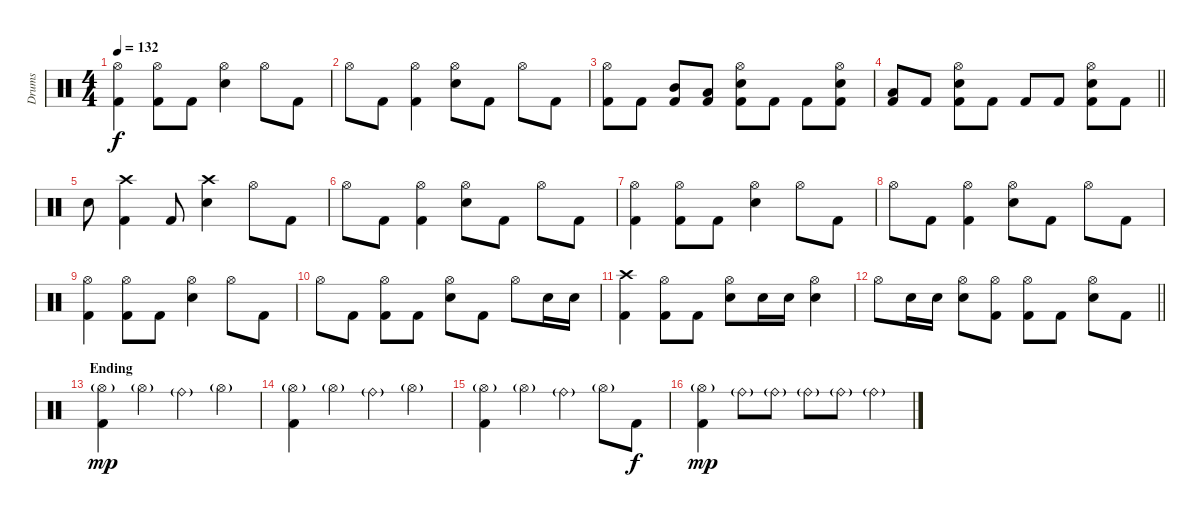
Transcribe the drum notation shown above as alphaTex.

\track ("Drums" "Drums") {instrument percussion}
\staff {score}
\articulation defaults
\ts (4 4)
\tempo 132
\clef neutral
\ks c
("Hi-Hat (open)" "Kick (hit) 2").4{dy f} ("Hi-Hat (open)" "Kick (hit) 2").8 "Kick (hit) 2".8 ("Hi-Hat (open)" "Electric Snare (hit)").4 "Hi-Hat (open)".8 "Kick (hit) 2".8 |
"Hi-Hat (open)".8 "Kick (hit) 2".8 ("Hi-Hat (open)" "Kick (hit) 2").4 ("Hi-Hat (open)" "Electric Snare (hit)").8 "Kick (hit) 2".8 "Hi-Hat (open)".8 "Kick (hit) 2".8 |
("Hi-Hat (open)" "Kick (hit) 2").8 "Kick (hit) 2".8 ("Mid Tom (hit)" "Kick (hit) 2").8 ("Low Tom (hit)" "Kick (hit) 2").8 ("Hi-Hat (open)" "Electric Snare (hit)" "Kick (hit) 2").8 "Kick (hit) 2".8 "Kick (hit) 2".8 ("Hi-Hat (open)" "Electric Snare (hit)" "Kick (hit) 2").8 |
\barLineRight lightlight
("Low Tom (hit)" "Kick (hit) 2").8 "Kick (hit) 2".8 ("Hi-Hat (open)" "Electric Snare (hit)" "Kick (hit) 2").8 "Kick (hit) 2".8 "Kick (hit) 2".8 "Kick (hit) 2".8 ("Hi-Hat (open)" "Electric Snare (hit)" "Kick (hit) 2").8 "Kick (hit) 2".8 |
"Electric Snare (hit)".8 ("Crash high (hit)" "Kick (hit) 2").4 "Kick (hit) 2".8 ("Crash high (hit)" "Electric Snare (hit)").4 "Hi-Hat (open)".8 "Kick (hit) 2".8 |
"Hi-Hat (open)".8 "Kick (hit) 2".8 ("Hi-Hat (open)" "Kick (hit) 2").4 ("Hi-Hat (open)" "Electric Snare (hit)").8 "Kick (hit) 2".8 "Hi-Hat (open)".8 "Kick (hit) 2".8 |
("Hi-Hat (open)" "Kick (hit) 2").4 ("Hi-Hat (open)" "Kick (hit) 2").8 "Kick (hit) 2".8 ("Hi-Hat (open)" "Electric Snare (hit)").4 "Hi-Hat (open)".8 "Kick (hit) 2".8 |
"Hi-Hat (open)".8 "Kick (hit) 2".8 ("Hi-Hat (open)" "Kick (hit) 2").4 ("Hi-Hat (open)" "Electric Snare (hit)").8 "Kick (hit) 2".8 "Hi-Hat (open)".8 "Kick (hit) 2".8 |
("Hi-Hat (open)" "Kick (hit) 2").4 ("Hi-Hat (open)" "Kick (hit) 2").8 "Kick (hit) 2".8 ("Hi-Hat (open)" "Electric Snare (hit)").4 "Hi-Hat (open)".8 "Kick (hit) 2".8 |
"Hi-Hat (open)".8 "Kick (hit) 2".8 ("Hi-Hat (open)" "Kick (hit) 2").8 "Kick (hit) 2".8 ("Hi-Hat (open)" "Electric Snare (hit)").8 "Kick (hit) 2".8 "Hi-Hat (open)".8 "Electric Snare (hit)".16 "Electric Snare (hit)".16 |
("Crash high (hit)" "Kick (hit) 2").4 ("Hi-Hat (open)" "Kick (hit) 2").8 "Kick (hit) 2".8 ("Hi-Hat (open)" "Electric Snare (hit)").8 "Electric Snare (hit)".16 "Electric Snare (hit)".16 ("Hi-Hat (open)" "Electric Snare (hit)").4 |
\barLineRight lightlight "Hi-Hat (open)".8 "Electric Snare (hit)".16 "Electric Snare (hit)".16
("Hi-Hat (open)" "Electric Snare (hit)").8 ("Hi-Hat (open)" "Kick (hit) 2").8 ("Hi-Hat (open)" "Kick (hit) 2").8 "Kick (hit) 2".8 ("Hi-Hat (open)" "Electric Snare (hit)").8 "Kick (hit) 2".8 |
\section ("" "Ending")
("Hi-Hat (open)"{g} "Kick (hit) 2").4{dy mp} "Hi-Hat (open)"{g}.4 "Ride (bell)"{g}.4 "Hi-Hat (open)"{g}.4 |
("Hi-Hat (open)"{g} "Kick (hit) 2").4 "Hi-Hat (open)"{g}.4 "Ride (bell)"{g}.4 "Hi-Hat (open)"{g}.4 |
("Hi-Hat (open)"{g} "Kick (hit) 2").4 "Hi-Hat (open)"{g}.4 "Ride (bell)"{g}.4 "Hi-Hat (open)"{g}.8 "Kick (hit) 2".8{dy f} |
("Hi-Hat (open)"{g} "Kick (hit) 2").4{dy mp} "Ride (bell)"{g}.8 "Ride (bell)"{g}.8 "Ride (bell)"{g}.8 "Ride (bell)"{g}.8 "Ride (bell)"{g}.4
